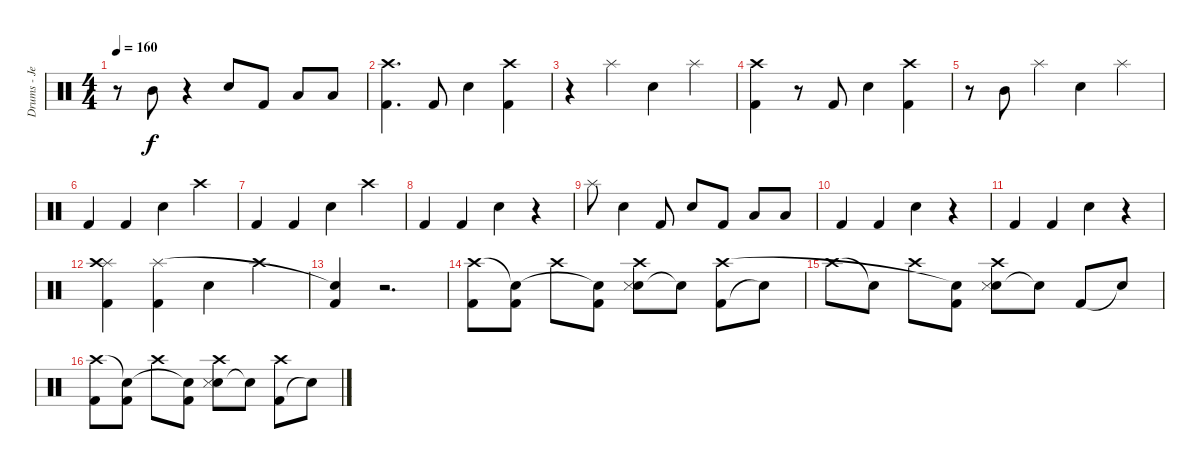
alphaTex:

\track ("Drums - Jen Ledger" "Drums - Je") {instrument percussion}
\staff {score}
\articulation defaults
\ts (4 4)
\tempo 160
\clef neutral
\ks c
r.8{dy f} "Mid Tom (hit)".8 r.4 "Snare (hit) 2".8 "Kick (hit) 2".8 "Low Floor Tom (hit)".8 "Low Floor Tom (hit)".8 |
("Kick (hit) 2" "Crash high (hit)").4{d} "Kick (hit) 2".8 "Snare (hit) 2".4 ("Kick (hit) 2" "Crash high (hit)").4 |
r.4 "Splash (hit)".4 "Snare (hit) 2".4 "Splash (hit)".4 |
("Kick (hit) 2" "Crash high (hit)").4 r.8 "Kick (hit) 2".8 "Snare (hit) 2".4 ("Kick (hit) 2" "Crash high (hit)").4 |
r.8 "Mid Tom (hit)".8 "Splash (hit)".4 "Snare (hit) 2".4 "Splash (hit)".4 |
"Kick (hit) 2".4 "Kick (hit) 2".4 "Snare (hit) 2".4 "Crash high (hit)".4 |
"Kick (hit) 2".4 "Kick (hit) 2".4 "Snare (hit) 2".4 "Crash high (hit)".4 |
"Kick (hit) 2".4 "Kick (hit) 2".4 "Snare (hit) 2".4 r.4 |
"Splash (hit)".8 "Snare (hit) 2".4 "Kick (hit) 2".8 "Snare (hit) 2".8 "Kick (hit) 2".8 "Low Floor Tom (hit)".8 "Low Floor Tom (hit)".8 |
"Kick (hit) 2".4 "Kick (hit) 2".4 "Snare (hit) 2".4 r.4 |
"Kick (hit) 2".4 "Kick (hit) 2".4 "Snare (hit) 2".4 r.4 |
("Kick (hit) 2" "Splash (hit)" "Crash high (hit)").4 ("Kick (hit) 2" "Splash (hit)").4 "Snare (hit) 2".4 "Crash high (hit)".4 |
("Kick (hit) 2" "Snare (hit)"{t}).4 r.2{d} |
("Kick (hit) 2" "Crash high (hit)").8 ("Kick (hit) 2" "Snare (hit)"{t}).8 "Crash high (hit)".8 ("Kick (hit) 2" "Snare (hit)"{t}).8 ("Snare (hit) 2" "Snare (side stick) 3" "Crash high (hit)").8 "Snare (hit)"{t}.8 ("Kick (hit) 2" "Crash high (hit)").8 "Snare (hit)"{t}.8 |
"Crash high (hit)".8 "Snare (hit)"{t}.8 "Crash high (hit)".8 ("Kick (hit) 2" "Snare (hit)"{t}).8 ("Snare (hit) 2" "Snare (side stick) 3" "Crash high (hit)").8 "Snare (hit)"{t}.8 "Kick (hit) 2".8 "Snare (hit)"{t}.8 |
("Kick (hit) 2" "Crash high (hit)").8 ("Kick (hit) 2" "Snare (hit)"{t}).8 "Crash high (hit)".8 ("Kick (hit) 2" "Snare (hit)"{t}).8 ("Snare (hit) 2" "Snare (side stick) 3" "Crash high (hit)").8 "Snare (hit)"{t}.8 ("Kick (hit) 2" "Crash high (hit)").8 "Snare (hit)"{t}.8
